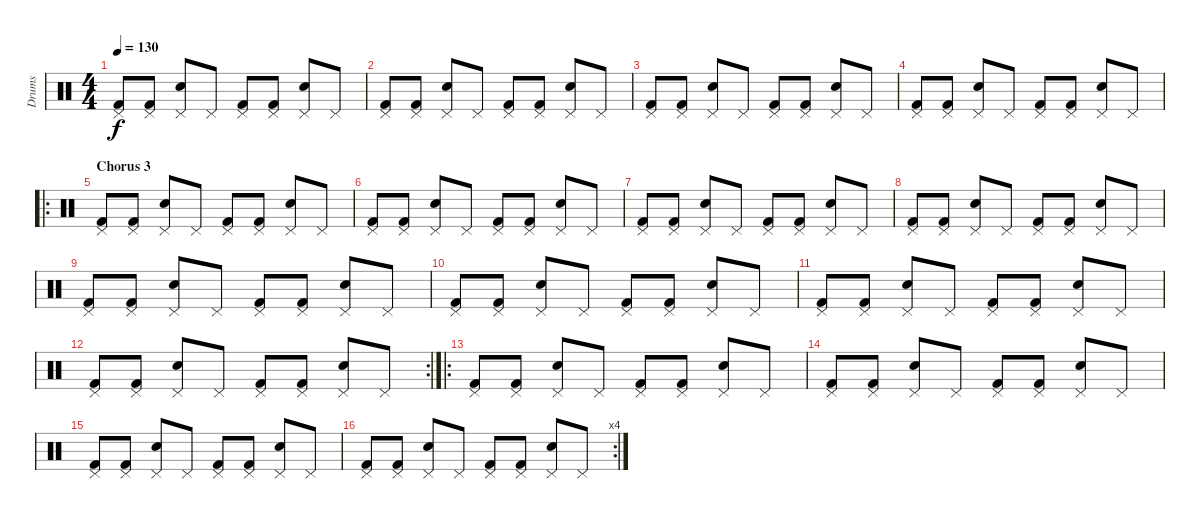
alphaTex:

\track ("Drums" "Drums") {instrument percussion}
\staff {score}
\articulation defaults
\ts (4 4)
\tempo 130
\clef neutral
\ks c
("Pedal Hi-Hat (hit)" "Kick (hit) 2").8{dy f} ("Pedal Hi-Hat (hit)" "Kick (hit) 2").8 ("Pedal Hi-Hat (hit)" "Snare (hit) 2").8 "Pedal Hi-Hat (hit)".8 ("Pedal Hi-Hat (hit)" "Kick (hit) 2").8 ("Pedal Hi-Hat (hit)" "Kick (hit) 2").8 ("Pedal Hi-Hat (hit)" "Snare (hit) 2").8 "Pedal Hi-Hat (hit)".8 |
("Pedal Hi-Hat (hit)" "Kick (hit) 2").8 ("Pedal Hi-Hat (hit)" "Kick (hit) 2").8 ("Pedal Hi-Hat (hit)" "Snare (hit) 2").8 "Pedal Hi-Hat (hit)".8 ("Pedal Hi-Hat (hit)" "Kick (hit) 2").8 ("Pedal Hi-Hat (hit)" "Kick (hit) 2").8 ("Pedal Hi-Hat (hit)" "Snare (hit) 2").8 "Pedal Hi-Hat (hit)".8 |
("Pedal Hi-Hat (hit)" "Kick (hit) 2").8 ("Pedal Hi-Hat (hit)" "Kick (hit) 2").8 ("Pedal Hi-Hat (hit)" "Snare (hit) 2").8 "Pedal Hi-Hat (hit)".8 ("Pedal Hi-Hat (hit)" "Kick (hit) 2").8 ("Pedal Hi-Hat (hit)" "Kick (hit) 2").8 ("Pedal Hi-Hat (hit)" "Snare (hit) 2").8 "Pedal Hi-Hat (hit)".8 |
("Pedal Hi-Hat (hit)" "Kick (hit) 2").8 ("Pedal Hi-Hat (hit)" "Kick (hit) 2").8 ("Pedal Hi-Hat (hit)" "Snare (hit) 2").8 "Pedal Hi-Hat (hit)".8 ("Pedal Hi-Hat (hit)" "Kick (hit) 2").8 ("Pedal Hi-Hat (hit)" "Kick (hit) 2").8 ("Pedal Hi-Hat (hit)" "Snare (hit) 2").8 "Pedal Hi-Hat (hit)".8 |
\ro
\section ("" "Chorus 3")
("Pedal Hi-Hat (hit)" "Kick (hit) 2").8 ("Pedal Hi-Hat (hit)" "Kick (hit) 2").8 ("Pedal Hi-Hat (hit)" "Snare (hit) 2").8 "Pedal Hi-Hat (hit)".8 ("Pedal Hi-Hat (hit)" "Kick (hit) 2").8 ("Pedal Hi-Hat (hit)" "Kick (hit) 2").8 ("Pedal Hi-Hat (hit)" "Snare (hit) 2").8 "Pedal Hi-Hat (hit)".8 |
("Pedal Hi-Hat (hit)" "Kick (hit) 2").8 ("Pedal Hi-Hat (hit)" "Kick (hit) 2").8 ("Pedal Hi-Hat (hit)" "Snare (hit) 2").8 "Pedal Hi-Hat (hit)".8 ("Pedal Hi-Hat (hit)" "Kick (hit) 2").8 ("Pedal Hi-Hat (hit)" "Kick (hit) 2").8 ("Pedal Hi-Hat (hit)" "Snare (hit) 2").8 "Pedal Hi-Hat (hit)".8 |
("Pedal Hi-Hat (hit)" "Kick (hit) 2").8 ("Pedal Hi-Hat (hit)" "Kick (hit) 2").8 ("Pedal Hi-Hat (hit)" "Snare (hit) 2").8 "Pedal Hi-Hat (hit)".8 ("Pedal Hi-Hat (hit)" "Kick (hit) 2").8 ("Pedal Hi-Hat (hit)" "Kick (hit) 2").8 ("Pedal Hi-Hat (hit)" "Snare (hit) 2").8 "Pedal Hi-Hat (hit)".8 |
("Pedal Hi-Hat (hit)" "Kick (hit) 2").8 ("Pedal Hi-Hat (hit)" "Kick (hit) 2").8 ("Pedal Hi-Hat (hit)" "Snare (hit) 2").8 "Pedal Hi-Hat (hit)".8 ("Pedal Hi-Hat (hit)" "Kick (hit) 2").8 ("Pedal Hi-Hat (hit)" "Kick (hit) 2").8 ("Pedal Hi-Hat (hit)" "Snare (hit) 2").8 "Pedal Hi-Hat (hit)".8 |
("Pedal Hi-Hat (hit)" "Kick (hit) 2").8 ("Pedal Hi-Hat (hit)" "Kick (hit) 2").8 ("Pedal Hi-Hat (hit)" "Snare (hit) 2").8 "Pedal Hi-Hat (hit)".8 ("Pedal Hi-Hat (hit)" "Kick (hit) 2").8 ("Pedal Hi-Hat (hit)" "Kick (hit) 2").8 ("Pedal Hi-Hat (hit)" "Snare (hit) 2").8 "Pedal Hi-Hat (hit)".8 |
("Pedal Hi-Hat (hit)" "Kick (hit) 2").8 ("Pedal Hi-Hat (hit)" "Kick (hit) 2").8 ("Pedal Hi-Hat (hit)" "Snare (hit) 2").8 "Pedal Hi-Hat (hit)".8 ("Pedal Hi-Hat (hit)" "Kick (hit) 2").8 ("Pedal Hi-Hat (hit)" "Kick (hit) 2").8 ("Pedal Hi-Hat (hit)" "Snare (hit) 2").8 "Pedal Hi-Hat (hit)".8 |
("Pedal Hi-Hat (hit)" "Kick (hit) 2").8 ("Pedal Hi-Hat (hit)" "Kick (hit) 2").8 ("Pedal Hi-Hat (hit)" "Snare (hit) 2").8 "Pedal Hi-Hat (hit)".8 ("Pedal Hi-Hat (hit)" "Kick (hit) 2").8 ("Pedal Hi-Hat (hit)" "Kick (hit) 2").8 ("Pedal Hi-Hat (hit)" "Snare (hit) 2").8 "Pedal Hi-Hat (hit)".8 |
\rc 2
("Pedal Hi-Hat (hit)" "Kick (hit) 2").8 ("Pedal Hi-Hat (hit)" "Kick (hit) 2").8 ("Pedal Hi-Hat (hit)" "Snare (hit) 2").8 "Pedal Hi-Hat (hit)".8 ("Pedal Hi-Hat (hit)" "Kick (hit) 2").8 ("Pedal Hi-Hat (hit)" "Kick (hit) 2").8 ("Pedal Hi-Hat (hit)" "Snare (hit) 2").8 "Pedal Hi-Hat (hit)".8 |
\ro
("Pedal Hi-Hat (hit)" "Kick (hit) 2").8 ("Pedal Hi-Hat (hit)" "Kick (hit) 2").8 ("Pedal Hi-Hat (hit)" "Snare (hit) 2").8 "Pedal Hi-Hat (hit)".8 ("Pedal Hi-Hat (hit)" "Kick (hit) 2").8 ("Pedal Hi-Hat (hit)" "Kick (hit) 2").8 ("Pedal Hi-Hat (hit)" "Snare (hit) 2").8 "Pedal Hi-Hat (hit)".8 |
("Pedal Hi-Hat (hit)" "Kick (hit) 2").8 ("Pedal Hi-Hat (hit)" "Kick (hit) 2").8 ("Pedal Hi-Hat (hit)" "Snare (hit) 2").8 "Pedal Hi-Hat (hit)".8 ("Pedal Hi-Hat (hit)" "Kick (hit) 2").8 ("Pedal Hi-Hat (hit)" "Kick (hit) 2").8 ("Pedal Hi-Hat (hit)" "Snare (hit) 2").8 "Pedal Hi-Hat (hit)".8 |
("Pedal Hi-Hat (hit)" "Kick (hit) 2").8 ("Pedal Hi-Hat (hit)" "Kick (hit) 2").8 ("Pedal Hi-Hat (hit)" "Snare (hit) 2").8 "Pedal Hi-Hat (hit)".8 ("Pedal Hi-Hat (hit)" "Kick (hit) 2").8 ("Pedal Hi-Hat (hit)" "Kick (hit) 2").8 ("Pedal Hi-Hat (hit)" "Snare (hit) 2").8 "Pedal Hi-Hat (hit)".8 |
\rc 4
("Pedal Hi-Hat (hit)" "Kick (hit) 2").8 ("Pedal Hi-Hat (hit)" "Kick (hit) 2").8 ("Pedal Hi-Hat (hit)" "Snare (hit) 2").8 "Pedal Hi-Hat (hit)".8 ("Pedal Hi-Hat (hit)" "Kick (hit) 2").8 ("Pedal Hi-Hat (hit)" "Kick (hit) 2").8 ("Pedal Hi-Hat (hit)" "Snare (hit) 2").8 "Pedal Hi-Hat (hit)".8
